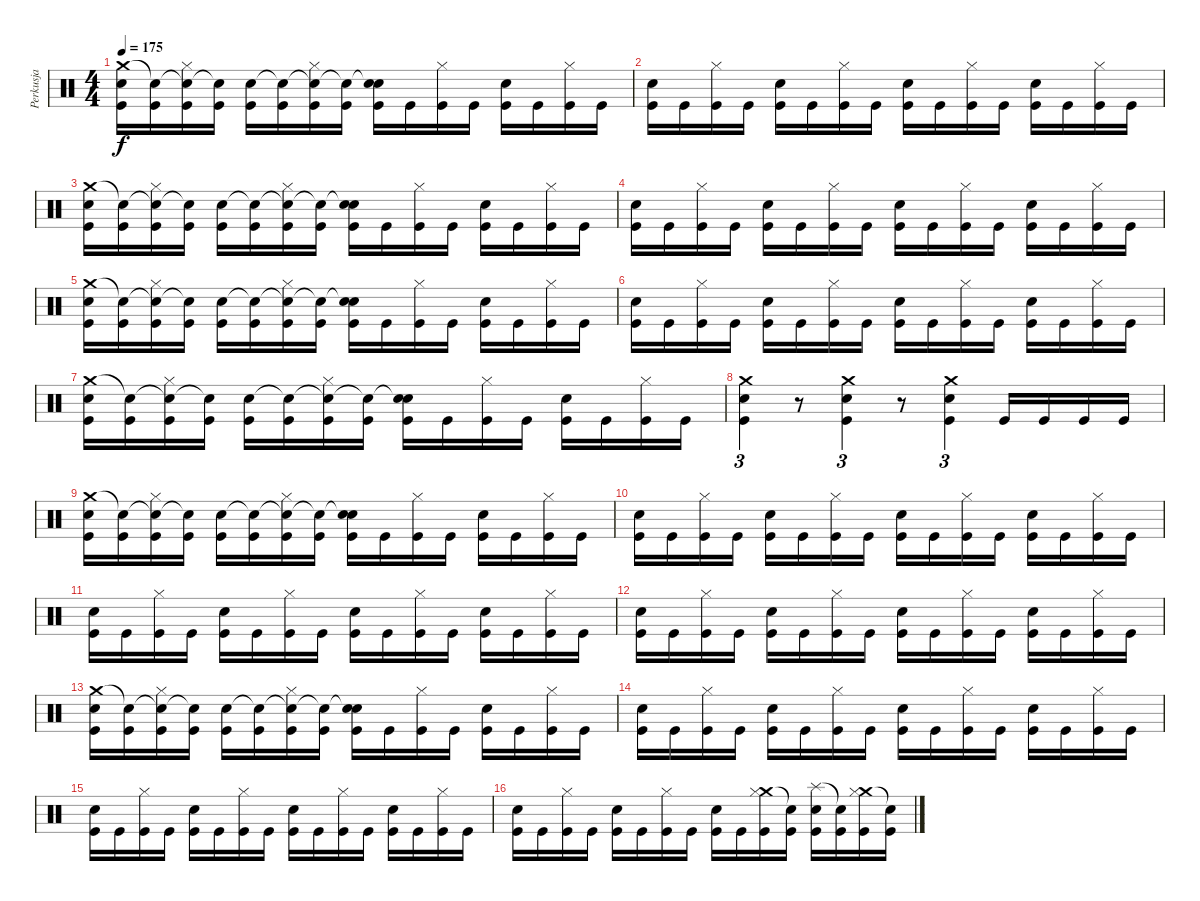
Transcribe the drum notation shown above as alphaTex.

\track ("Perkusja" "Perkusja") {instrument percussion}
\staff {score}
\articulation defaults
\ts (4 4)
\tempo 175
\clef neutral
\ks c
("Crash medium (hit)" "Snare (hit) 2" "Kick (hit)").16{dy f} ("Snare (hit)"{t} "Kick (hit)").16 ("Snare (hit)"{t} "Hi-Hat (closed)" "Kick (hit)").16 ("Snare (hit)"{t} "Kick (hit)").16 ("Snare (hit) 2" "Kick (hit)").16 ("Snare (hit)"{t} "Kick (hit)").16 ("Snare (hit)"{t} "Hi-Hat (closed)" "Kick (hit)").16 ("Snare (hit)"{t} "Kick (hit)").16 ("Snare (hit)"{t} "Snare (hit) 2" "Kick (hit)").16 "Kick (hit)".16 ("Hi-Hat (closed)" "Kick (hit)").16 "Kick (hit)".16 ("Snare (hit) 2" "Kick (hit)").16 "Kick (hit)".16 ("Hi-Hat (closed)" "Kick (hit)").16 "Kick (hit)".16 |
("Snare (hit) 2" "Kick (hit)").16 "Kick (hit)".16 ("Hi-Hat (closed)" "Kick (hit)").16 "Kick (hit)".16 ("Snare (hit) 2" "Kick (hit)").16 "Kick (hit)".16 ("Hi-Hat (closed)" "Kick (hit)").16 "Kick (hit)".16 ("Snare (hit) 2" "Kick (hit)").16 "Kick (hit)".16 ("Hi-Hat (closed)" "Kick (hit)").16 "Kick (hit)".16 ("Snare (hit) 2" "Kick (hit)").16 "Kick (hit)".16 ("Hi-Hat (closed)" "Kick (hit)").16 "Kick (hit)".16 |
("Crash medium (hit)" "Snare (hit) 2" "Kick (hit)").16 ("Snare (hit)"{t} "Kick (hit)").16 ("Snare (hit)"{t} "Hi-Hat (closed)" "Kick (hit)").16 ("Snare (hit)"{t} "Kick (hit)").16 ("Snare (hit) 2" "Kick (hit)").16 ("Snare (hit)"{t} "Kick (hit)").16 ("Snare (hit)"{t} "Hi-Hat (closed)" "Kick (hit)").16 ("Snare (hit)"{t} "Kick (hit)").16 ("Snare (hit)"{t} "Snare (hit) 2" "Kick (hit)").16 "Kick (hit)".16 ("Hi-Hat (closed)" "Kick (hit)").16 "Kick (hit)".16 ("Snare (hit) 2" "Kick (hit)").16 "Kick (hit)".16 ("Hi-Hat (closed)" "Kick (hit)").16 "Kick (hit)".16 |
("Snare (hit) 2" "Kick (hit)").16 "Kick (hit)".16 ("Hi-Hat (closed)" "Kick (hit)").16 "Kick (hit)".16 ("Snare (hit) 2" "Kick (hit)").16 "Kick (hit)".16 ("Hi-Hat (closed)" "Kick (hit)").16 "Kick (hit)".16 ("Snare (hit) 2" "Kick (hit)").16 "Kick (hit)".16 ("Hi-Hat (closed)" "Kick (hit)").16 "Kick (hit)".16 ("Snare (hit) 2" "Kick (hit)").16 "Kick (hit)".16 ("Hi-Hat (closed)" "Kick (hit)").16 "Kick (hit)".16 |
("Crash medium (hit)" "Snare (hit) 2" "Kick (hit)").16 ("Snare (hit)"{t} "Kick (hit)").16 ("Snare (hit)"{t} "Hi-Hat (closed)" "Kick (hit)").16 ("Snare (hit)"{t} "Kick (hit)").16 ("Snare (hit) 2" "Kick (hit)").16 ("Snare (hit)"{t} "Kick (hit)").16 ("Snare (hit)"{t} "Hi-Hat (closed)" "Kick (hit)").16 ("Snare (hit)"{t} "Kick (hit)").16 ("Snare (hit)"{t} "Snare (hit) 2" "Kick (hit)").16 "Kick (hit)".16 ("Hi-Hat (closed)" "Kick (hit)").16 "Kick (hit)".16 ("Snare (hit) 2" "Kick (hit)").16 "Kick (hit)".16 ("Hi-Hat (closed)" "Kick (hit)").16 "Kick (hit)".16 |
("Snare (hit) 2" "Kick (hit)").16 "Kick (hit)".16 ("Hi-Hat (closed)" "Kick (hit)").16 "Kick (hit)".16 ("Snare (hit) 2" "Kick (hit)").16 "Kick (hit)".16 ("Hi-Hat (closed)" "Kick (hit)").16 "Kick (hit)".16 ("Snare (hit) 2" "Kick (hit)").16 "Kick (hit)".16 ("Hi-Hat (closed)" "Kick (hit)").16 "Kick (hit)".16 ("Snare (hit) 2" "Kick (hit)").16 "Kick (hit)".16 ("Hi-Hat (closed)" "Kick (hit)").16 "Kick (hit)".16 |
("Crash medium (hit)" "Snare (hit) 2" "Kick (hit)").16 ("Snare (hit)"{t} "Kick (hit)").16 ("Snare (hit)"{t} "Hi-Hat (closed)" "Kick (hit)").16 ("Snare (hit)"{t} "Kick (hit)").16 ("Snare (hit) 2" "Kick (hit)").16 ("Snare (hit)"{t} "Kick (hit)").16 ("Snare (hit)"{t} "Hi-Hat (closed)" "Kick (hit)").16 ("Snare (hit)"{t} "Kick (hit)").16 ("Snare (hit)"{t} "Snare (hit) 2" "Kick (hit)").16 "Kick (hit)".16 ("Hi-Hat (closed)" "Kick (hit)").16 "Kick (hit)".16 ("Snare (hit) 2" "Kick (hit)").16 "Kick (hit)".16 ("Hi-Hat (closed)" "Kick (hit)").16 "Kick (hit)".16 |
("Crash medium (hit)" "Snare (hit) 2" "Kick (hit)").4{tu (3 2)} r.8 ("Crash medium (hit)" "Snare (hit) 2" "Kick (hit)").4{tu (3 2)} r.8 ("Crash medium (hit)" "Snare (hit) 2" "Kick (hit)").4{tu (3 2)} "Kick (hit)".16 "Kick (hit)".16 "Kick (hit)".16 "Kick (hit)".16 |
("Crash medium (hit)" "Snare (hit) 2" "Kick (hit)").16 ("Snare (hit)"{t} "Kick (hit)").16 ("Snare (hit)"{t} "Hi-Hat (closed)" "Kick (hit)").16 ("Snare (hit)"{t} "Kick (hit)").16 ("Snare (hit) 2" "Kick (hit)").16 ("Snare (hit)"{t} "Kick (hit)").16 ("Snare (hit)"{t} "Hi-Hat (closed)" "Kick (hit)").16 ("Snare (hit)"{t} "Kick (hit)").16 ("Snare (hit)"{t} "Snare (hit) 2" "Kick (hit)").16 "Kick (hit)".16 ("Hi-Hat (closed)" "Kick (hit)").16 "Kick (hit)".16 ("Snare (hit) 2" "Kick (hit)").16 "Kick (hit)".16 ("Hi-Hat (closed)" "Kick (hit)").16 "Kick (hit)".16 |
("Snare (hit) 2" "Kick (hit)").16 "Kick (hit)".16 ("Hi-Hat (closed)" "Kick (hit)").16 "Kick (hit)".16 ("Snare (hit) 2" "Kick (hit)").16 "Kick (hit)".16 ("Hi-Hat (closed)" "Kick (hit)").16 "Kick (hit)".16 ("Snare (hit) 2" "Kick (hit)").16 "Kick (hit)".16 ("Hi-Hat (closed)" "Kick (hit)").16 "Kick (hit)".16 ("Snare (hit) 2" "Kick (hit)").16 "Kick (hit)".16 ("Hi-Hat (closed)" "Kick (hit)").16 "Kick (hit)".16 |
("Snare (hit) 2" "Kick (hit)").16 "Kick (hit)".16 ("Hi-Hat (closed)" "Kick (hit)").16 "Kick (hit)".16 ("Snare (hit) 2" "Kick (hit)").16 "Kick (hit)".16 ("Hi-Hat (closed)" "Kick (hit)").16 "Kick (hit)".16 ("Snare (hit) 2" "Kick (hit)").16 "Kick (hit)".16 ("Hi-Hat (closed)" "Kick (hit)").16 "Kick (hit)".16 ("Snare (hit) 2" "Kick (hit)").16 "Kick (hit)".16 ("Hi-Hat (closed)" "Kick (hit)").16 "Kick (hit)".16 |
("Snare (hit) 2" "Kick (hit)").16 "Kick (hit)".16 ("Hi-Hat (closed)" "Kick (hit)").16 "Kick (hit)".16 ("Snare (hit) 2" "Kick (hit)").16 "Kick (hit)".16 ("Hi-Hat (closed)" "Kick (hit)").16 "Kick (hit)".16 ("Snare (hit) 2" "Kick (hit)").16 "Kick (hit)".16 ("Hi-Hat (closed)" "Kick (hit)").16 "Kick (hit)".16 ("Snare (hit) 2" "Kick (hit)").16 "Kick (hit)".16 ("Hi-Hat (closed)" "Kick (hit)").16 "Kick (hit)".16 |
("Crash medium (hit)" "Snare (hit) 2" "Kick (hit)").16 ("Snare (hit)"{t} "Kick (hit)").16 ("Snare (hit)"{t} "Hi-Hat (closed)" "Kick (hit)").16 ("Snare (hit)"{t} "Kick (hit)").16 ("Snare (hit) 2" "Kick (hit)").16 ("Snare (hit)"{t} "Kick (hit)").16 ("Snare (hit)"{t} "Hi-Hat (closed)" "Kick (hit)").16 ("Snare (hit)"{t} "Kick (hit)").16 ("Snare (hit)"{t} "Snare (hit) 2" "Kick (hit)").16 "Kick (hit)".16 ("Hi-Hat (closed)" "Kick (hit)").16 "Kick (hit)".16 ("Snare (hit) 2" "Kick (hit)").16 "Kick (hit)".16 ("Hi-Hat (closed)" "Kick (hit)").16 "Kick (hit)".16 |
("Snare (hit) 2" "Kick (hit)").16 "Kick (hit)".16 ("Hi-Hat (closed)" "Kick (hit)").16 "Kick (hit)".16 ("Snare (hit) 2" "Kick (hit)").16 "Kick (hit)".16 ("Hi-Hat (closed)" "Kick (hit)").16 "Kick (hit)".16 ("Snare (hit) 2" "Kick (hit)").16 "Kick (hit)".16 ("Hi-Hat (closed)" "Kick (hit)").16 "Kick (hit)".16 ("Snare (hit) 2" "Kick (hit)").16 "Kick (hit)".16 ("Hi-Hat (closed)" "Kick (hit)").16 "Kick (hit)".16 |
("Snare (hit) 2" "Kick (hit)").16 "Kick (hit)".16 ("Hi-Hat (closed)" "Kick (hit)").16 "Kick (hit)".16 ("Snare (hit) 2" "Kick (hit)").16 "Kick (hit)".16 ("Hi-Hat (closed)" "Kick (hit)").16 "Kick (hit)".16 ("Snare (hit) 2" "Kick (hit)").16 "Kick (hit)".16 ("Hi-Hat (closed)" "Kick (hit)").16 "Kick (hit)".16 ("Snare (hit) 2" "Kick (hit)").16 "Kick (hit)".16 ("Hi-Hat (closed)" "Kick (hit)").16 "Kick (hit)".16 |
("Snare (hit) 2" "Kick (hit)").16 "Kick (hit)".16 ("Hi-Hat (closed)" "Kick (hit)").16 "Kick (hit)".16 ("Snare (hit) 2" "Kick (hit)").16 "Kick (hit)".16 ("Hi-Hat (closed)" "Kick (hit)").16 "Kick (hit)".16 ("Snare (hit) 2" "Kick (hit)").16 "Kick (hit)".16 ("Crash medium (hit)" "Hi-Hat (closed)" "Kick (hit)").16 ("Snare (hit)"{t} "Kick (hit)").16 ("Splash (hit)" "Snare (hit) 2" "Kick (hit)").16 ("Snare (hit)"{t} "Kick (hit)").16 ("Crash medium (hit)" "Hi-Hat (closed)" "Kick (hit)").16 ("Snare (hit)"{t} "Kick (hit)").16
